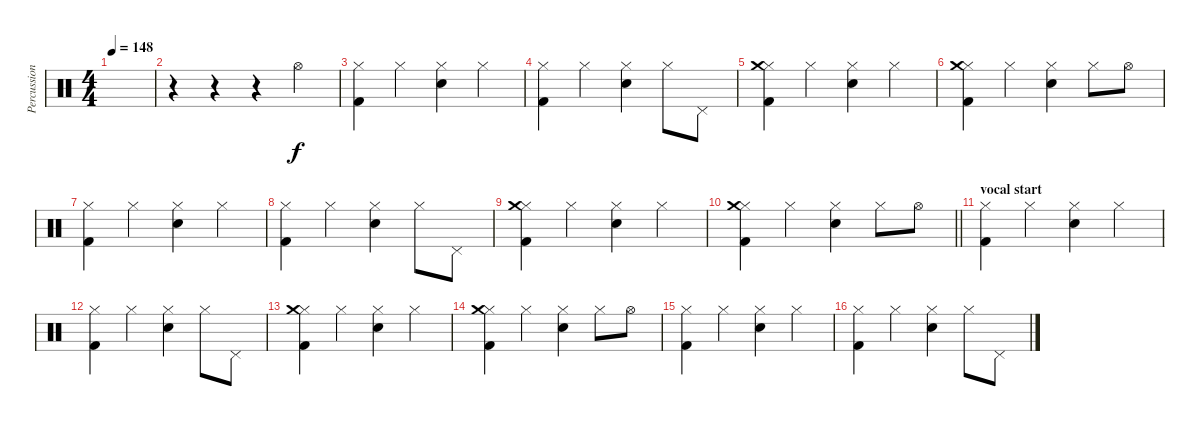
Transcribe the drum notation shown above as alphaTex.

\track ("Percussions" "Percussion") {instrument percussion}
\staff {score}
\articulation defaults
\ts (4 4)
\tempo 148
\clef neutral
\ks c
|
r.4 r.4 r.4 "Hi-Hat (open)".4 |
("Hi-Hat (closed)" "Kick (hit) 2").4 "Hi-Hat (closed)".4 ("Hi-Hat (closed)" "Snare (hit) 2").4 "Hi-Hat (closed)".4 |
("Hi-Hat (closed)" "Kick (hit) 2").4 "Hi-Hat (closed)".4 ("Hi-Hat (closed)" "Snare (hit) 2").4 "Hi-Hat (closed)".8 "Pedal Hi-Hat (hit)".8 |
("Hi-Hat (closed)" "Kick (hit) 2" "Crash medium (hit)").4 "Hi-Hat (closed)".4 ("Hi-Hat (closed)" "Snare (hit) 2").4 "Hi-Hat (closed)".4 |
("Hi-Hat (closed)" "Kick (hit) 2" "Crash medium (hit)").4 "Hi-Hat (closed)".4 ("Hi-Hat (closed)" "Snare (hit) 2").4 "Hi-Hat (closed)".8 "Hi-Hat (open)".8 |
("Hi-Hat (closed)" "Kick (hit) 2").4 "Hi-Hat (closed)".4 ("Hi-Hat (closed)" "Snare (hit) 2").4 "Hi-Hat (closed)".4 |
("Hi-Hat (closed)" "Kick (hit) 2").4 "Hi-Hat (closed)".4 ("Hi-Hat (closed)" "Snare (hit) 2").4 "Hi-Hat (closed)".8 "Pedal Hi-Hat (hit)".8 |
("Hi-Hat (closed)" "Kick (hit) 2" "Crash medium (hit)").4 "Hi-Hat (closed)".4 ("Hi-Hat (closed)" "Snare (hit) 2").4 "Hi-Hat (closed)".4 |
\barLineRight lightlight
("Hi-Hat (closed)" "Kick (hit) 2" "Crash medium (hit)").4 "Hi-Hat (closed)".4 ("Hi-Hat (closed)" "Snare (hit) 2").4 "Hi-Hat (closed)".8 "Hi-Hat (open)".8 |
\section ("" "vocal start")
("Hi-Hat (closed)" "Kick (hit) 2").4 "Hi-Hat (closed)".4 ("Hi-Hat (closed)" "Snare (hit) 2").4 "Hi-Hat (closed)".4 |
("Hi-Hat (closed)" "Kick (hit) 2").4 "Hi-Hat (closed)".4 ("Hi-Hat (closed)" "Snare (hit) 2").4 "Hi-Hat (closed)".8 "Pedal Hi-Hat (hit)".8 |
("Hi-Hat (closed)" "Kick (hit) 2" "Crash medium (hit)").4 "Hi-Hat (closed)".4 ("Hi-Hat (closed)" "Snare (hit) 2").4 "Hi-Hat (closed)".4 |
("Hi-Hat (closed)" "Kick (hit) 2" "Crash medium (hit)").4 "Hi-Hat (closed)".4 ("Hi-Hat (closed)" "Snare (hit) 2").4 "Hi-Hat (closed)".8 "Hi-Hat (open)".8 |
("Hi-Hat (closed)" "Kick (hit) 2").4 "Hi-Hat (closed)".4 ("Hi-Hat (closed)" "Snare (hit) 2").4 "Hi-Hat (closed)".4 |
("Hi-Hat (closed)" "Kick (hit) 2").4 "Hi-Hat (closed)".4 ("Hi-Hat (closed)" "Snare (hit) 2").4 "Hi-Hat (closed)".8 "Pedal Hi-Hat (hit)".8
